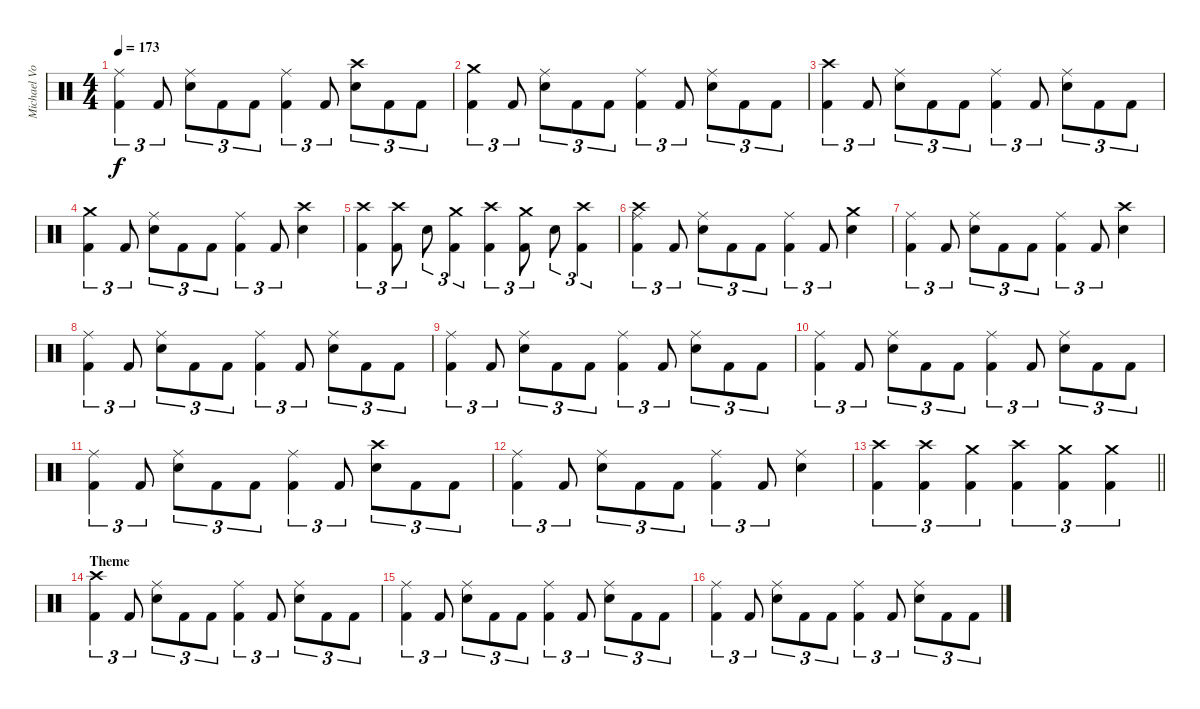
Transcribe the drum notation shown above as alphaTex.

\track ("Michael Von Knorring " "Michael Vo") {instrument percussion}
\staff {score}
\articulation defaults
\ts (4 4)
\tempo 173
\clef neutral
\ks c
("Ride (middle)" "Kick (hit) 2").4{tu (3 2) dy f} "Kick (hit) 2".8{tu (3 2)} ("Ride (middle)" "Snare (hit) 2").8{tu (3 2)} "Kick (hit) 2".8{tu (3 2)} "Kick (hit) 2".8{tu (3 2)} ("Ride (middle)" "Kick (hit) 2").4{tu (3 2)} "Kick (hit) 2".8{tu (3 2)} ("Crash high (hit)" "Snare (hit) 2").8{tu (3 2)} "Kick (hit) 2".8{tu (3 2)} "Kick (hit) 2".8{tu (3 2)} |
("Crash medium (hit)" "Kick (hit) 2").4{tu (3 2)} "Kick (hit) 2".8{tu (3 2)} ("Ride (middle)" "Snare (hit) 2").8{tu (3 2)} "Kick (hit) 2".8{tu (3 2)} "Kick (hit) 2".8{tu (3 2)} ("Ride (middle)" "Kick (hit) 2").4{tu (3 2)} "Kick (hit) 2".8{tu (3 2)} ("Ride (middle)" "Snare (hit) 2").8{tu (3 2)} "Kick (hit) 2".8{tu (3 2)} "Kick (hit) 2".8{tu (3 2)} |
("Crash high (hit)" "Kick (hit) 2").4{tu (3 2)} "Kick (hit) 2".8{tu (3 2)} ("Ride (middle)" "Snare (hit) 2").8{tu (3 2)} "Kick (hit) 2".8{tu (3 2)} "Kick (hit) 2".8{tu (3 2)} ("Ride (middle)" "Kick (hit) 2").4{tu (3 2)} "Kick (hit) 2".8{tu (3 2)} ("Ride (middle)" "Snare (hit) 2").8{tu (3 2)} "Kick (hit) 2".8{tu (3 2)} "Kick (hit) 2".8{tu (3 2)} |
("Crash medium (hit)" "Kick (hit) 2").4{tu (3 2)} "Kick (hit) 2".8{tu (3 2)} ("Ride (middle)" "Snare (hit) 2").8{tu (3 2)} "Kick (hit) 2".8{tu (3 2)} "Kick (hit) 2".8{tu (3 2)} ("Ride (middle)" "Kick (hit) 2").4{tu (3 2)} "Kick (hit) 2".8{tu (3 2)} ("Crash high (hit)" "Snare (hit) 2").4 |
("Crash high (hit)" "Kick (hit) 2").4{tu (3 2)} ("Crash high (hit)" "Kick (hit) 2").8{tu (3 2)} "Snare (hit) 2".8{tu (3 2)} ("Crash medium (hit)" "Kick (hit) 2").4{tu (3 2)} ("Crash high (hit)" "Kick (hit) 2").4{tu (3 2)} ("Crash medium (hit)" "Kick (hit) 2").8{tu (3 2)} "Snare (hit) 2".8{tu (3 2)} ("Crash high (hit)" "Kick (hit) 2").4{tu (3 2)} |
("Crash high (hit)" "Ride (middle)" "Kick (hit) 2").4{tu (3 2)} "Kick (hit) 2".8{tu (3 2)} ("Ride (middle)" "Snare (hit) 2").8{tu (3 2)} "Kick (hit) 2".8{tu (3 2)} "Kick (hit) 2".8{tu (3 2)} ("Ride (middle)" "Kick (hit) 2").4{tu (3 2)} "Kick (hit) 2".8{tu (3 2)} ("Crash medium (hit)" "Snare (hit) 2").4 |
("Ride (middle)" "Kick (hit) 2").4{tu (3 2)} "Kick (hit) 2".8{tu (3 2)} ("Ride (middle)" "Snare (hit) 2").8{tu (3 2)} "Kick (hit) 2".8{tu (3 2)} "Kick (hit) 2".8{tu (3 2)} ("Ride (middle)" "Kick (hit) 2").4{tu (3 2)} "Kick (hit) 2".8{tu (3 2)} ("Crash high (hit)" "Snare (hit) 2").4 |
("Ride (middle)" "Kick (hit) 2").4{tu (3 2)} "Kick (hit) 2".8{tu (3 2)} ("Ride (middle)" "Snare (hit) 2").8{tu (3 2)} "Kick (hit) 2".8{tu (3 2)} "Kick (hit) 2".8{tu (3 2)} ("Ride (middle)" "Kick (hit) 2").4{tu (3 2)} "Kick (hit) 2".8{tu (3 2)} ("Ride (middle)" "Snare (hit) 2").8{tu (3 2)} "Kick (hit) 2".8{tu (3 2)} "Kick (hit) 2".8{tu (3 2)} |
("Ride (middle)" "Kick (hit) 2").4{tu (3 2)} "Kick (hit) 2".8{tu (3 2)} ("Ride (middle)" "Snare (hit) 2").8{tu (3 2)} "Kick (hit) 2".8{tu (3 2)} "Kick (hit) 2".8{tu (3 2)} ("Ride (middle)" "Kick (hit) 2").4{tu (3 2)} "Kick (hit) 2".8{tu (3 2)} ("Ride (middle)" "Snare (hit) 2").8{tu (3 2)} "Kick (hit) 2".8{tu (3 2)} "Kick (hit) 2".8{tu (3 2)} |
("Ride (middle)" "Kick (hit) 2").4{tu (3 2)} "Kick (hit) 2".8{tu (3 2)} ("Ride (middle)" "Snare (hit) 2").8{tu (3 2)} "Kick (hit) 2".8{tu (3 2)} "Kick (hit) 2".8{tu (3 2)} ("Ride (middle)" "Kick (hit) 2").4{tu (3 2)} "Kick (hit) 2".8{tu (3 2)} ("Ride (middle)" "Snare (hit) 2").8{tu (3 2)} "Kick (hit) 2".8{tu (3 2)} "Kick (hit) 2".8{tu (3 2)} |
("Ride (middle)" "Kick (hit) 2").4{tu (3 2)} "Kick (hit) 2".8{tu (3 2)} ("Ride (middle)" "Snare (hit) 2").8{tu (3 2)} "Kick (hit) 2".8{tu (3 2)} "Kick (hit) 2".8{tu (3 2)} ("Ride (middle)" "Kick (hit) 2").4{tu (3 2)} "Kick (hit) 2".8{tu (3 2)} ("Crash high (hit)" "Snare (hit) 2").8{tu (3 2)} "Kick (hit) 2".8{tu (3 2)} "Kick (hit) 2".8{tu (3 2)} |
("Ride (middle)" "Kick (hit) 2").4{tu (3 2)} "Kick (hit) 2".8{tu (3 2)} ("Ride (middle)" "Snare (hit) 2").8{tu (3 2)} "Kick (hit) 2".8{tu (3 2)} "Kick (hit) 2".8{tu (3 2)} ("Ride (middle)" "Kick (hit) 2").4{tu (3 2)} "Kick (hit) 2".8{tu (3 2)} ("Ride (middle)" "Snare (hit) 2").4 |
\barLineRight lightlight
("Crash high (hit)" "Kick (hit) 2").4{tu (3 2)} ("Crash high (hit)" "Kick (hit) 2").4{tu (3 2)} ("Crash medium (hit)" "Kick (hit) 2").4{tu (3 2)} ("Crash high (hit)" "Kick (hit) 2").4{tu (3 2)} ("Crash medium (hit)" "Kick (hit) 2").4{tu (3 2)} ("Crash medium (hit)" "Kick (hit) 2").4{tu (3 2)} |
\section ("" "Theme")
("Crash high (hit)" "Kick (hit) 2").4{tu (3 2)} "Kick (hit) 2".8{tu (3 2)} ("Ride (middle)" "Snare (hit) 2").8{tu (3 2)} "Kick (hit) 2".8{tu (3 2)} "Kick (hit) 2".8{tu (3 2)} ("Ride (middle)" "Kick (hit) 2").4{tu (3 2)} "Kick (hit) 2".8{tu (3 2)} ("Ride (middle)" "Snare (hit) 2").8{tu (3 2)} "Kick (hit) 2".8{tu (3 2)} "Kick (hit) 2".8{tu (3 2)} |
("Ride (middle)" "Kick (hit) 2").4{tu (3 2)} "Kick (hit) 2".8{tu (3 2)} ("Ride (middle)" "Snare (hit) 2").8{tu (3 2)} "Kick (hit) 2".8{tu (3 2)} "Kick (hit) 2".8{tu (3 2)} ("Ride (middle)" "Kick (hit) 2").4{tu (3 2)} "Kick (hit) 2".8{tu (3 2)} ("Ride (middle)" "Snare (hit) 2").8{tu (3 2)} "Kick (hit) 2".8{tu (3 2)} "Kick (hit) 2".8{tu (3 2)} |
("Ride (middle)" "Kick (hit) 2").4{tu (3 2)} "Kick (hit) 2".8{tu (3 2)} ("Ride (middle)" "Snare (hit) 2").8{tu (3 2)} "Kick (hit) 2".8{tu (3 2)} "Kick (hit) 2".8{tu (3 2)} ("Ride (middle)" "Kick (hit) 2").4{tu (3 2)} "Kick (hit) 2".8{tu (3 2)} ("Ride (middle)" "Snare (hit) 2").8{tu (3 2)} "Kick (hit) 2".8{tu (3 2)} "Kick (hit) 2".8{tu (3 2)}
